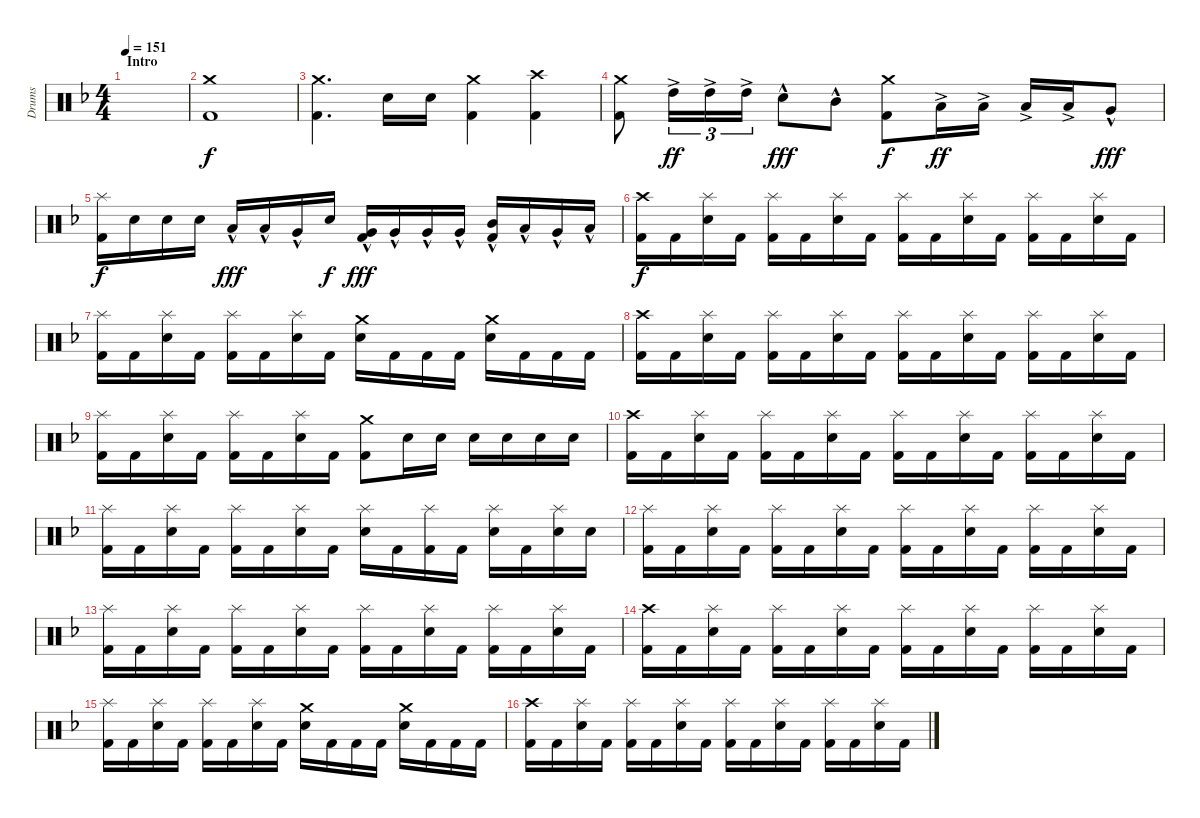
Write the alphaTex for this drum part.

\track ("Drums" "Drums") {instrument percussion}
\staff {score}
\articulation defaults
\ts (4 4)
\section ("" "Intro")
\tempo 151
\clef neutral
\ks dminor
|
("Crash medium (hit)" "Kick (hit) 2").1 |
("Crash medium (hit)" "Kick (hit) 2").4{d} "Snare (hit) 2".16 "Snare (hit) 2".16 ("Crash medium (hit)" "Kick (hit) 2").4 ("Crash high (hit)" "Kick (hit) 2").4 |
("Crash medium (hit)" "Kick (hit) 2").8 "High Tom (hit)"{ac}.16{tu (3 2) dy ff} "High Tom (hit)"{ac}.16{tu (3 2)} "High Tom (hit)"{ac}.16{tu (3 2)} "Snare (hit) 2"{hac}.8{dy fff} "Mid Tom (hit)"{hac}.8 ("Crash medium (hit)" "Kick (hit) 2").8{dy f} "Low Tom (hit)"{ac}.16{dy ff} "Low Tom (hit)"{ac}.16 "Low Tom (hit)"{ac}.16 "Low Tom (hit)"{ac}.16 "Very Low Tom (hit)"{hac}.8{dy fff} |
("Splash (hit)" "Kick (hit) 2").16{dy f} "Snare (hit) 2".16 "Snare (hit) 2".16 "Snare (hit) 2".16 "Low Tom (hit)"{hac}.16{dy fff} "Low Tom (hit)"{hac}.16 "Very Low Tom (hit)"{hac}.16 "Snare (hit) 2".16{dy f} ("Very Low Tom (hit)"{hac} "Kick (hit) 2").16{dy fff} "Very Low Tom (hit)"{hac}.16 "Very Low Tom (hit)"{hac}.16 "Very Low Tom (hit)"{hac}.16 ("Mid Tom (hit)"{hac} "Kick (hit) 2").16 "Low Tom (hit)"{hac}.16 "Very Low Tom (hit)"{hac}.16 "Low Floor Tom (hit)"{hac}.16 |
("Crash high (hit)" "Kick (hit) 2").16{dy f} "Kick (hit) 2".16 ("Splash (hit)" "Snare (hit) 2").16 "Kick (hit) 2".16 ("Splash (hit)" "Kick (hit) 2").16 "Kick (hit) 2".16 ("Splash (hit)" "Snare (hit) 2").16 "Kick (hit) 2".16 ("Splash (hit)" "Kick (hit) 2").16 "Kick (hit) 2".16 ("Splash (hit)" "Snare (hit) 2").16 "Kick (hit) 2".16 ("Splash (hit)" "Kick (hit) 2").16 "Kick (hit) 2".16 ("Splash (hit)" "Snare (hit) 2").16 "Kick (hit) 2".16 |
("Splash (hit)" "Kick (hit) 2").16 "Kick (hit) 2".16 ("Splash (hit)" "Snare (hit) 2").16 "Kick (hit) 2".16 ("Splash (hit)" "Kick (hit) 2").16 "Kick (hit) 2".16 ("Splash (hit)" "Snare (hit) 2").16 "Kick (hit) 2".16 ("Crash medium (hit)" "Snare (hit) 2").16 "Kick (hit) 2".16 "Kick (hit) 2".16 "Kick (hit) 2".16 ("Crash medium (hit)" "Snare (hit) 2").16 "Kick (hit) 2".16 "Kick (hit) 2".16 "Kick (hit) 2".16 |
("Crash high (hit)" "Kick (hit) 2").16 "Kick (hit) 2".16 ("Splash (hit)" "Snare (hit) 2").16 "Kick (hit) 2".16 ("Splash (hit)" "Kick (hit) 2").16 "Kick (hit) 2".16 ("Splash (hit)" "Snare (hit) 2").16 "Kick (hit) 2".16 ("Splash (hit)" "Kick (hit) 2").16 "Kick (hit) 2".16 ("Splash (hit)" "Snare (hit) 2").16 "Kick (hit) 2".16 ("Splash (hit)" "Kick (hit) 2").16 "Kick (hit) 2".16 ("Splash (hit)" "Snare (hit) 2").16 "Kick (hit) 2".16 |
("Splash (hit)" "Kick (hit) 2").16 "Kick (hit) 2".16 ("Splash (hit)" "Snare (hit) 2").16 "Kick (hit) 2".16 ("Splash (hit)" "Kick (hit) 2").16 "Kick (hit) 2".16 ("Splash (hit)" "Snare (hit) 2").16 "Kick (hit) 2".16 ("Crash medium (hit)" "Kick (hit) 2").8 "Snare (hit) 2".16 "Snare (hit) 2".16 "Snare (hit) 2".16 "Snare (hit) 2".16 "Snare (hit) 2".16 "Snare (hit) 2".16 |
("Crash high (hit)" "Kick (hit) 2").16 "Kick (hit) 2".16 ("Splash (hit)" "Snare (hit) 2").16 "Kick (hit) 2".16 ("Splash (hit)" "Kick (hit) 2").16 "Kick (hit) 2".16 ("Splash (hit)" "Snare (hit) 2").16 "Kick (hit) 2".16 ("Splash (hit)" "Kick (hit) 2").16 "Kick (hit) 2".16 ("Splash (hit)" "Snare (hit) 2").16 "Kick (hit) 2".16 ("Splash (hit)" "Kick (hit) 2").16 "Kick (hit) 2".16 ("Splash (hit)" "Snare (hit) 2").16 "Kick (hit) 2".16 |
("Splash (hit)" "Kick (hit) 2").16 "Kick (hit) 2".16 ("Splash (hit)" "Snare (hit) 2").16 "Kick (hit) 2".16 ("Splash (hit)" "Kick (hit) 2").16 "Kick (hit) 2".16 ("Splash (hit)" "Snare (hit) 2").16 "Kick (hit) 2".16 ("Splash (hit)" "Snare (hit) 2").16 "Kick (hit) 2".16 ("Splash (hit)" "Kick (hit) 2").16 "Kick (hit) 2".16 ("Splash (hit)" "Snare (hit) 2").16 "Kick (hit) 2".16 ("Splash (hit)" "Snare (hit) 2").16 "Snare (hit) 2".16 |
("Splash (hit)" "Kick (hit) 2").16 "Kick (hit) 2".16 ("Splash (hit)" "Snare (hit) 2").16 "Kick (hit) 2".16 ("Splash (hit)" "Kick (hit) 2").16 "Kick (hit) 2".16 ("Splash (hit)" "Snare (hit) 2").16 "Kick (hit) 2".16 ("Splash (hit)" "Kick (hit) 2").16 "Kick (hit) 2".16 ("Splash (hit)" "Snare (hit) 2").16 "Kick (hit) 2".16 ("Splash (hit)" "Kick (hit) 2").16 "Kick (hit) 2".16 ("Splash (hit)" "Snare (hit) 2").16 "Kick (hit) 2".16 |
("Splash (hit)" "Kick (hit) 2").16 "Kick (hit) 2".16 ("Splash (hit)" "Snare (hit) 2").16 "Kick (hit) 2".16 ("Splash (hit)" "Kick (hit) 2").16 "Kick (hit) 2".16 ("Splash (hit)" "Snare (hit) 2").16 "Kick (hit) 2".16 ("Splash (hit)" "Kick (hit) 2").16 "Kick (hit) 2".16 ("Splash (hit)" "Snare (hit) 2").16 "Kick (hit) 2".16 ("Splash (hit)" "Kick (hit) 2").16 "Kick (hit) 2".16 ("Splash (hit)" "Snare (hit) 2").16 "Kick (hit) 2".16 |
("Crash high (hit)" "Kick (hit) 2").16 "Kick (hit) 2".16 ("Splash (hit)" "Snare (hit) 2").16 "Kick (hit) 2".16 ("Splash (hit)" "Kick (hit) 2").16 "Kick (hit) 2".16 ("Splash (hit)" "Snare (hit) 2").16 "Kick (hit) 2".16 ("Splash (hit)" "Kick (hit) 2").16 "Kick (hit) 2".16 ("Splash (hit)" "Snare (hit) 2").16 "Kick (hit) 2".16 ("Splash (hit)" "Kick (hit) 2").16 "Kick (hit) 2".16 ("Splash (hit)" "Snare (hit) 2").16 "Kick (hit) 2".16 |
("Splash (hit)" "Kick (hit) 2").16 "Kick (hit) 2".16 ("Splash (hit)" "Snare (hit) 2").16 "Kick (hit) 2".16 ("Splash (hit)" "Kick (hit) 2").16 "Kick (hit) 2".16 ("Splash (hit)" "Snare (hit) 2").16 "Kick (hit) 2".16 ("Crash medium (hit)" "Snare (hit) 2").16 "Kick (hit) 2".16 "Kick (hit) 2".16 "Kick (hit) 2".16 ("Crash medium (hit)" "Snare (hit) 2").16 "Kick (hit) 2".16 "Kick (hit) 2".16 "Kick (hit) 2".16 |
("Crash high (hit)" "Kick (hit) 2").16 "Kick (hit) 2".16 ("Splash (hit)" "Snare (hit) 2").16 "Kick (hit) 2".16 ("Splash (hit)" "Kick (hit) 2").16 "Kick (hit) 2".16 ("Splash (hit)" "Snare (hit) 2").16 "Kick (hit) 2".16 ("Splash (hit)" "Kick (hit) 2").16 "Kick (hit) 2".16 ("Splash (hit)" "Snare (hit) 2").16 "Kick (hit) 2".16 ("Splash (hit)" "Kick (hit) 2").16 "Kick (hit) 2".16 ("Splash (hit)" "Snare (hit) 2").16 "Kick (hit) 2".16
